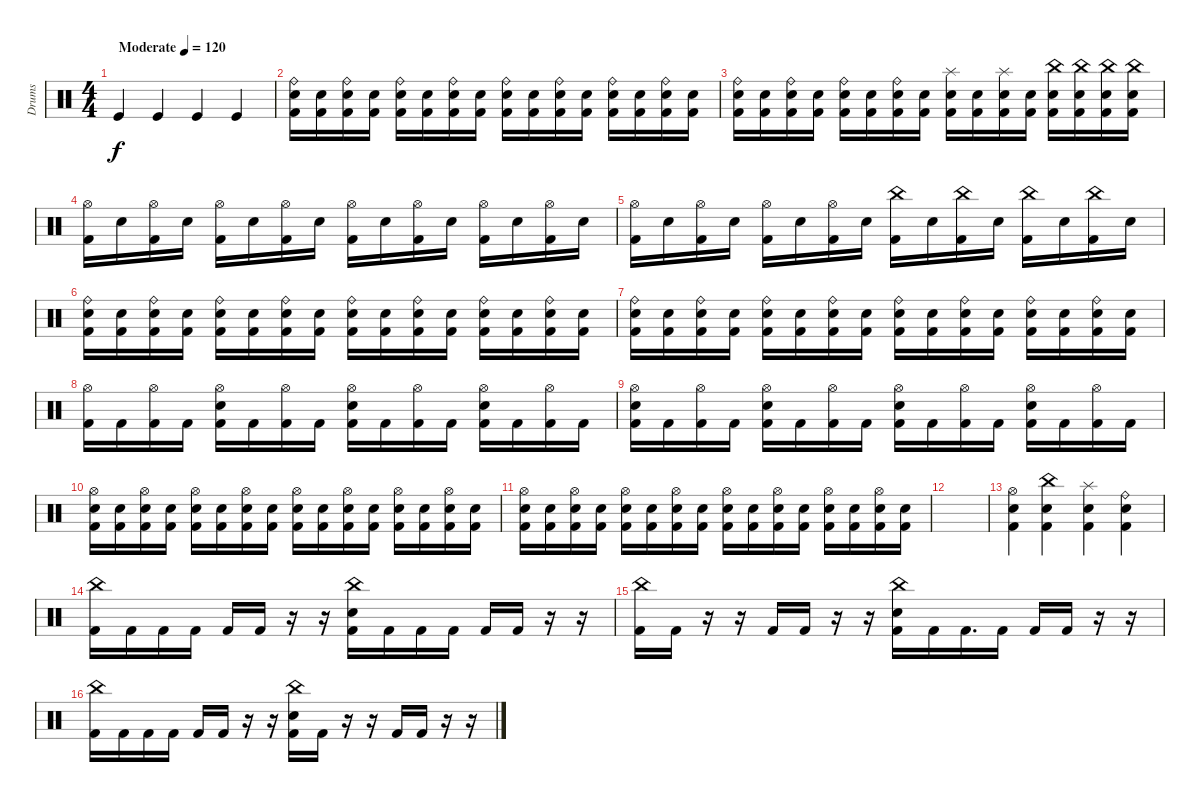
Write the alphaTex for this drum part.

\track ("Drums" "Drums") {instrument percussion}
\staff {score}
\articulation defaults
\ts (4 4)
\tempo (120 "Moderate")
\clef neutral
\ks c "Kick (hit)".4{dy f} "Kick (hit)".4 "Kick (hit)".4 "Kick (hit)".4
|
("Ride (bell)" "Snare (hit) 2" "Kick (hit) 2").16 ("Snare (hit) 2" "Kick (hit) 2").16 ("Ride (bell)" "Snare (hit) 2" "Kick (hit) 2").16 ("Snare (hit) 2" "Kick (hit) 2").16 ("Ride (bell)" "Snare (hit) 2" "Kick (hit) 2").16 ("Snare (hit) 2" "Kick (hit) 2").16 ("Ride (bell)" "Snare (hit) 2" "Kick (hit) 2").16 ("Snare (hit) 2" "Kick (hit) 2").16 ("Ride (bell)" "Snare (hit) 2" "Kick (hit) 2").16 ("Snare (hit) 2" "Kick (hit) 2").16 ("Ride (bell)" "Snare (hit) 2" "Kick (hit) 2").16 ("Snare (hit) 2" "Kick (hit) 2").16 ("Ride (bell)" "Snare (hit) 2" "Kick (hit) 2").16 ("Snare (hit) 2" "Kick (hit) 2").16 ("Ride (bell)" "Snare (hit) 2" "Kick (hit) 2").16 ("Snare (hit) 2" "Kick (hit) 2").16 |
("Ride (bell)" "Snare (hit) 2" "Kick (hit) 2").16 ("Snare (hit) 2" "Kick (hit) 2").16 ("Ride (bell)" "Snare (hit) 2" "Kick (hit) 2").16 ("Snare (hit) 2" "Kick (hit) 2").16 ("Ride (bell)" "Snare (hit) 2" "Kick (hit) 2").16 ("Snare (hit) 2" "Kick (hit) 2").16 ("Ride (bell)" "Snare (hit) 2" "Kick (hit) 2").16 ("Snare (hit) 2" "Kick (hit) 2").16 ("Splash (hit)" "Snare (hit) 2" "Kick (hit) 2").16 ("Snare (hit) 2" "Kick (hit) 2").16 ("Splash (hit)" "Snare (hit) 2" "Kick (hit) 2").16 ("Snare (hit) 2" "Kick (hit) 2").16 ("China (hit)" "Snare (hit) 2" "Kick (hit) 2").16 ("China (hit)" "Snare (hit) 2" "Kick (hit) 2").16 ("China (hit)" "Snare (hit) 2" "Kick (hit) 2").16 ("China (hit)" "Snare (hit) 2" "Kick (hit) 2").16 |
("Hi-Hat (open)" "Kick (hit) 2").16 "Snare (hit) 2".16 ("Hi-Hat (open)" "Kick (hit) 2").16 "Snare (hit) 2".16 ("Hi-Hat (open)" "Kick (hit) 2").16 "Snare (hit) 2".16 ("Hi-Hat (open)" "Kick (hit) 2").16 "Snare (hit) 2".16 ("Hi-Hat (open)" "Kick (hit) 2").16 "Snare (hit) 2".16 ("Hi-Hat (open)" "Kick (hit) 2").16 "Snare (hit) 2".16 ("Hi-Hat (open)" "Kick (hit) 2").16 "Snare (hit) 2".16 ("Hi-Hat (open)" "Kick (hit) 2").16 "Snare (hit) 2".16 |
("Hi-Hat (open)" "Kick (hit) 2").16 "Snare (hit) 2".16 ("Hi-Hat (open)" "Kick (hit) 2").16 "Snare (hit) 2".16 ("Hi-Hat (open)" "Kick (hit) 2").16 "Snare (hit) 2".16 ("Hi-Hat (open)" "Kick (hit) 2").16 "Snare (hit) 2".16 ("China (hit)" "Kick (hit) 2").16 "Snare (hit) 2".16 ("China (hit)" "Kick (hit) 2").16 "Snare (hit) 2".16 ("China (hit)" "Kick (hit) 2").16 "Snare (hit) 2".16 ("China (hit)" "Kick (hit) 2").16 "Snare (hit) 2".16 |
("Ride (bell)" "Snare (hit) 2" "Kick (hit) 2").16 ("Snare (hit) 2" "Kick (hit) 2").16 ("Ride (bell)" "Snare (hit) 2" "Kick (hit) 2").16 ("Snare (hit) 2" "Kick (hit) 2").16 ("Ride (bell)" "Snare (hit) 2" "Kick (hit) 2").16 ("Snare (hit) 2" "Kick (hit) 2").16 ("Ride (bell)" "Snare (hit) 2" "Kick (hit) 2").16 ("Snare (hit) 2" "Kick (hit) 2").16 ("Ride (bell)" "Snare (hit) 2" "Kick (hit) 2").16 ("Snare (hit) 2" "Kick (hit) 2").16 ("Ride (bell)" "Snare (hit) 2" "Kick (hit) 2").16 ("Snare (hit) 2" "Kick (hit) 2").16 ("Ride (bell)" "Snare (hit) 2" "Kick (hit) 2").16 ("Snare (hit) 2" "Kick (hit) 2").16 ("Ride (bell)" "Snare (hit) 2" "Kick (hit) 2").16 ("Snare (hit) 2" "Kick (hit) 2").16 |
("Ride (bell)" "Snare (hit) 2" "Kick (hit) 2").16 ("Snare (hit) 2" "Kick (hit) 2").16 ("Ride (bell)" "Snare (hit) 2" "Kick (hit) 2").16 ("Snare (hit) 2" "Kick (hit) 2").16 ("Ride (bell)" "Snare (hit) 2" "Kick (hit) 2").16 ("Snare (hit) 2" "Kick (hit) 2").16 ("Ride (bell)" "Snare (hit) 2" "Kick (hit) 2").16 ("Snare (hit) 2" "Kick (hit) 2").16 ("Ride (bell)" "Snare (hit) 2" "Kick (hit) 2").16 ("Snare (hit) 2" "Kick (hit) 2").16 ("Ride (bell)" "Snare (hit) 2" "Kick (hit) 2").16 ("Snare (hit) 2" "Kick (hit) 2").16 ("Ride (bell)" "Snare (hit) 2" "Kick (hit) 2").16 ("Snare (hit) 2" "Kick (hit) 2").16 ("Ride (bell)" "Snare (hit) 2" "Kick (hit) 2").16 ("Snare (hit) 2" "Kick (hit) 2").16 |
("Hi-Hat (open)" "Kick (hit) 2").16 "Kick (hit) 2".16 ("Hi-Hat (open)" "Kick (hit) 2").16 "Kick (hit) 2".16 ("Hi-Hat (open)" "Snare (hit) 2" "Kick (hit) 2").16 "Kick (hit) 2".16 ("Hi-Hat (open)" "Kick (hit) 2").16 "Kick (hit) 2".16 ("Hi-Hat (open)" "Snare (hit) 2" "Kick (hit) 2").16 "Kick (hit) 2".16 ("Hi-Hat (open)" "Kick (hit) 2").16 "Kick (hit) 2".16 ("Hi-Hat (open)" "Snare (hit) 2" "Kick (hit) 2").16 "Kick (hit) 2".16 ("Hi-Hat (open)" "Kick (hit) 2").16 "Kick (hit) 2".16 |
("Hi-Hat (open)" "Snare (hit) 2" "Kick (hit) 2").16 "Kick (hit) 2".16 ("Hi-Hat (open)" "Kick (hit) 2").16 "Kick (hit) 2".16 ("Hi-Hat (open)" "Snare (hit) 2" "Kick (hit) 2").16 "Kick (hit) 2".16 ("Hi-Hat (open)" "Kick (hit) 2").16 "Kick (hit) 2".16 ("Hi-Hat (open)" "Snare (hit) 2" "Kick (hit) 2").16 "Kick (hit) 2".16 ("Hi-Hat (open)" "Kick (hit) 2").16 "Kick (hit) 2".16 ("Hi-Hat (open)" "Snare (hit) 2" "Kick (hit) 2").16 "Kick (hit) 2".16 ("Hi-Hat (open)" "Kick (hit) 2").16 "Kick (hit) 2".16 |
("Hi-Hat (open)" "Snare (hit) 2" "Kick (hit) 2").16 ("Snare (hit) 2" "Kick (hit) 2").16 ("Hi-Hat (open)" "Snare (hit) 2" "Kick (hit) 2").16 ("Snare (hit) 2" "Kick (hit) 2").16 ("Hi-Hat (open)" "Snare (hit) 2" "Kick (hit) 2").16 ("Snare (hit) 2" "Kick (hit) 2").16 ("Hi-Hat (open)" "Snare (hit) 2" "Kick (hit) 2").16 ("Snare (hit) 2" "Kick (hit) 2").16 ("Hi-Hat (open)" "Snare (hit) 2" "Kick (hit) 2").16 ("Snare (hit) 2" "Kick (hit) 2").16 ("Hi-Hat (open)" "Snare (hit) 2" "Kick (hit) 2").16 ("Snare (hit) 2" "Kick (hit) 2").16 ("Hi-Hat (open)" "Snare (hit) 2" "Kick (hit) 2").16 ("Snare (hit) 2" "Kick (hit) 2").16 ("Hi-Hat (open)" "Snare (hit) 2" "Kick (hit) 2").16 ("Snare (hit) 2" "Kick (hit) 2").16 |
("Hi-Hat (open)" "Snare (hit) 2" "Kick (hit) 2").16 ("Snare (hit) 2" "Kick (hit) 2").16 ("Hi-Hat (open)" "Snare (hit) 2" "Kick (hit) 2").16 ("Snare (hit) 2" "Kick (hit) 2").16 ("Hi-Hat (open)" "Snare (hit) 2" "Kick (hit) 2").16 ("Snare (hit) 2" "Kick (hit) 2").16 ("Hi-Hat (open)" "Snare (hit) 2" "Kick (hit) 2").16 ("Snare (hit) 2" "Kick (hit) 2").16 ("Hi-Hat (open)" "Snare (hit) 2" "Kick (hit) 2").16 ("Snare (hit) 2" "Kick (hit) 2").16 ("Hi-Hat (open)" "Snare (hit) 2" "Kick (hit) 2").16 ("Snare (hit) 2" "Kick (hit) 2").16 ("Hi-Hat (open)" "Snare (hit) 2" "Kick (hit) 2").16 ("Snare (hit) 2" "Kick (hit) 2").16 ("Hi-Hat (open)" "Snare (hit) 2" "Kick (hit) 2").16 ("Snare (hit) 2" "Kick (hit) 2").16 |
|
("Hi-Hat (open)" "Snare (hit) 2" "Kick (hit) 2").4 ("China (hit)" "Snare (hit) 2" "Kick (hit) 2").4 ("Splash (hit)" "Snare (hit) 2" "Kick (hit) 2").4 ("Ride (bell)" "Snare (hit) 2" "Kick (hit) 2").4 |
("China (hit)" "Kick (hit) 2").16 "Kick (hit) 2".16 "Kick (hit) 2".16 "Kick (hit) 2".16 "Kick (hit) 2".16 "Kick (hit) 2".16 r.16 r.16 ("China (hit)" "Snare (hit) 2" "Kick (hit) 2").16 "Kick (hit) 2".16 "Kick (hit) 2".16 "Kick (hit) 2".16 "Kick (hit) 2".16 "Kick (hit) 2".16 r.16 r.16 |
("China (hit)" "Kick (hit) 2").16 "Kick (hit) 2".16 r.16 r.16 "Kick (hit) 2".16 "Kick (hit) 2".16 r.16 r.16 ("China (hit)" "Snare (hit) 2" "Kick (hit) 2").16 "Kick (hit) 2".16 "Kick (hit) 2".16{d} "Kick (hit) 2".16 "Kick (hit) 2".16 "Kick (hit) 2".16 r.16 r.16 |
("China (hit)" "Kick (hit) 2").16 "Kick (hit) 2".16 "Kick (hit) 2".16 "Kick (hit) 2".16 "Kick (hit) 2".16 "Kick (hit) 2".16 r.16 r.16 ("China (hit)" "Snare (hit) 2" "Kick (hit) 2").16 "Kick (hit) 2".16 r.16 r.16 "Kick (hit) 2".16 "Kick (hit) 2".16 r.16 r.16
